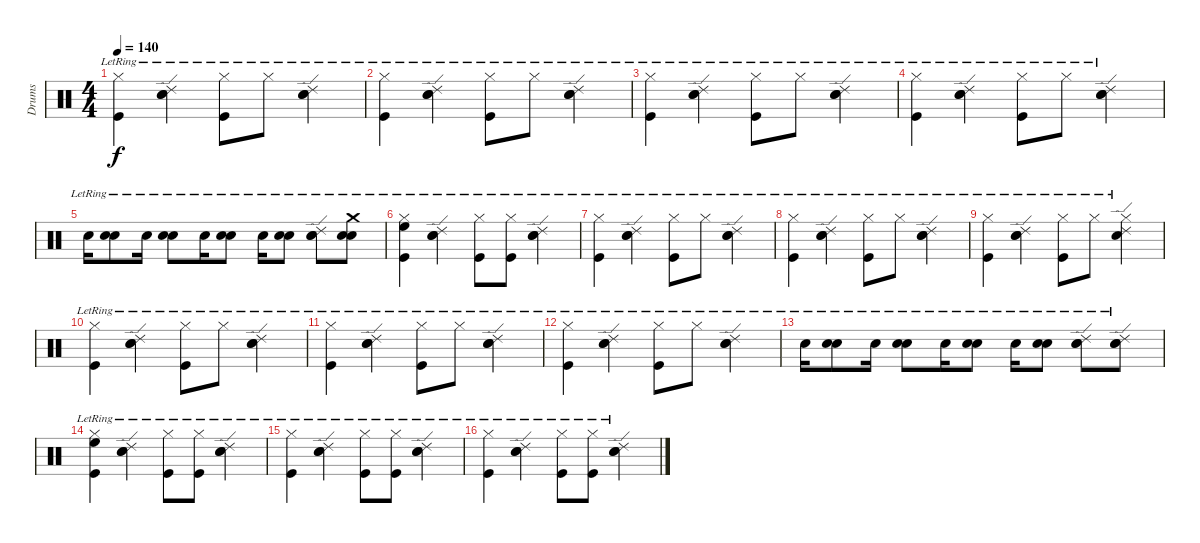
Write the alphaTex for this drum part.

\track ("Drums" "Drums") {instrument percussion}
\staff {score}
\articulation defaults
\ts (4 4)
\tempo 140
\clef neutral
\ks c
("Hi-Hat (closed)"{lr} "Kick (hit)"{lr}).4{dy f} ("Electric Snare (hit)"{lr} "Ride (edge) 2"{lr} "Snare (hit) 2"{lr}).4 ("Hi-Hat (closed)"{lr} "Kick (hit)"{lr}).8 "Hi-Hat (closed)"{lr}.8 ("Electric Snare (hit)"{lr} "Ride (edge) 2"{lr} "Snare (hit) 2"{lr}).4 |
("Hi-Hat (closed)"{lr} "Kick (hit)"{lr}).4 ("Electric Snare (hit)"{lr} "Ride (edge) 2"{lr} "Snare (hit) 2"{lr}).4 ("Hi-Hat (closed)"{lr} "Kick (hit)"{lr}).8 "Hi-Hat (closed)"{lr}.8 ("Electric Snare (hit)"{lr} "Ride (edge) 2"{lr} "Snare (hit) 2"{lr}).4 |
("Hi-Hat (closed)"{lr} "Kick (hit)"{lr}).4 ("Electric Snare (hit)"{lr} "Ride (edge) 2"{lr} "Snare (hit) 2"{lr}).4 ("Hi-Hat (closed)"{lr} "Kick (hit)"{lr}).8 "Hi-Hat (closed)"{lr}.8 ("Electric Snare (hit)"{lr} "Ride (edge) 2"{lr} "Snare (hit) 2"{lr}).4 |
("Hi-Hat (closed)"{lr} "Kick (hit)"{lr}).4 ("Electric Snare (hit)"{lr} "Ride (edge) 2"{lr} "Snare (hit) 2"{lr}).4 ("Hi-Hat (closed)"{lr} "Kick (hit)"{lr}).8 "Hi-Hat (closed)"{lr}.8 ("Electric Snare (hit)"{lr} "Ride (edge) 2"{lr} "Snare (hit) 2"{lr}).4 |
"Snare (hit) 2"{lr}.16 ("Snare (hit) 2"{lr} "Electric Snare (hit)"{lr}).8 "Snare (hit) 2"{lr}.16 ("Snare (hit) 2"{lr} "Electric Snare (hit)"{lr}).8 "Snare (hit) 2"{lr}.16 ("Snare (hit) 2"{lr} "Electric Snare (hit)"{lr}).8 "Snare (hit) 2"{lr}.16 ("Snare (hit) 2"{lr} "Electric Snare (hit)"{lr}).8 ("Snare (hit) 2"{lr} "Electric Snare (hit)"{lr} "Ride (edge) 2"{lr}).8 ("Snare (hit) 2"{lr} "Electric Snare (hit)"{lr} "Crash medium (hit)"{lr}).8 |
("Hi-Hat (closed)"{lr} "Kick (hit)"{lr} "High Floor Tom (hit)"{lr}).4 ("Electric Snare (hit)"{lr} "Ride (edge) 2"{lr} "Snare (hit) 2"{lr}).4 ("Hi-Hat (closed)"{lr} "Kick (hit)"{lr}).8 ("Hi-Hat (closed)"{lr} "Kick (hit)").8 ("Electric Snare (hit)"{lr} "Ride (edge) 2"{lr} "Snare (hit) 2"{lr}).4 |
("Hi-Hat (closed)"{lr} "Kick (hit)"{lr}).4 ("Electric Snare (hit)"{lr} "Ride (edge) 2"{lr} "Snare (hit) 2"{lr}).4 ("Hi-Hat (closed)"{lr} "Kick (hit)"{lr}).8 "Hi-Hat (closed)"{lr}.8 ("Electric Snare (hit)"{lr} "Ride (edge) 2"{lr} "Snare (hit) 2"{lr}).4 |
("Hi-Hat (closed)"{lr} "Kick (hit)"{lr}).4 ("Electric Snare (hit)"{lr} "Ride (edge) 2"{lr} "Snare (hit) 2"{lr}).4 ("Hi-Hat (closed)"{lr} "Kick (hit)"{lr}).8 "Hi-Hat (closed)"{lr}.8 ("Electric Snare (hit)"{lr} "Ride (edge) 2"{lr} "Snare (hit) 2"{lr}).4 |
("Hi-Hat (closed)"{lr} "Kick (hit)"{lr}).4 ("Electric Snare (hit)"{lr} "Ride (edge) 2"{lr} "Snare (hit) 2"{lr}).4 ("Hi-Hat (closed)"{lr} "Kick (hit)"{lr}).8 "Hi-Hat (closed)"{lr}.8 ("Hi-Hat (closed)"{lr} "Ride (edge) 2"{lr} "Snare (hit) 2"{lr}).4 |
("Hi-Hat (closed)"{lr} "Kick (hit)"{lr}).4 ("Electric Snare (hit)"{lr} "Ride (edge) 2"{lr} "Snare (hit) 2"{lr}).4 ("Hi-Hat (closed)"{lr} "Kick (hit)"{lr}).8 "Hi-Hat (closed)"{lr}.8 ("Electric Snare (hit)"{lr} "Ride (edge) 2"{lr} "Snare (hit) 2"{lr}).4 |
("Hi-Hat (closed)"{lr} "Kick (hit)"{lr}).4 ("Electric Snare (hit)"{lr} "Ride (edge) 2"{lr} "Snare (hit) 2"{lr}).4 ("Hi-Hat (closed)"{lr} "Kick (hit)"{lr}).8 "Hi-Hat (closed)"{lr}.8 ("Electric Snare (hit)"{lr} "Ride (edge) 2"{lr} "Snare (hit) 2"{lr}).4 |
("Hi-Hat (closed)"{lr} "Kick (hit)"{lr}).4 ("Electric Snare (hit)"{lr} "Ride (edge) 2"{lr} "Snare (hit) 2"{lr}).4 ("Hi-Hat (closed)"{lr} "Kick (hit)"{lr}).8 "Hi-Hat (closed)"{lr}.8 ("Electric Snare (hit)"{lr} "Ride (edge) 2"{lr} "Snare (hit) 2"{lr}).4 |
"Snare (hit) 2"{lr}.16 ("Snare (hit) 2"{lr} "Electric Snare (hit)"{lr}).8 "Snare (hit) 2"{lr}.16 ("Snare (hit) 2"{lr} "Electric Snare (hit)"{lr}).8 "Snare (hit) 2"{lr}.16 ("Snare (hit) 2"{lr} "Electric Snare (hit)"{lr}).8 "Snare (hit) 2"{lr}.16 ("Snare (hit) 2"{lr} "Electric Snare (hit)"{lr}).8 ("Snare (hit) 2"{lr} "Electric Snare (hit)"{lr} "Ride (edge) 2"{lr}).8 ("Snare (hit) 2"{lr} "Electric Snare (hit)"{lr} "Ride (edge) 2"{lr}).8 |
("Hi-Hat (closed)"{lr} "Kick (hit)"{lr} "High Floor Tom (hit)"{lr}).4 ("Electric Snare (hit)"{lr} "Ride (edge) 2"{lr} "Snare (hit) 2"{lr}).4 ("Hi-Hat (closed)"{lr} "Kick (hit)"{lr}).8 ("Hi-Hat (closed)"{lr} "Kick (hit)").8 ("Electric Snare (hit)"{lr} "Ride (edge) 2"{lr} "Snare (hit) 2"{lr}).4 |
("Hi-Hat (closed)"{lr} "Kick (hit)"{lr}).4 ("Electric Snare (hit)"{lr} "Ride (edge) 2"{lr} "Snare (hit) 2"{lr}).4 ("Hi-Hat (closed)"{lr} "Kick (hit)"{lr}).8 ("Hi-Hat (closed)"{lr} "Kick (hit)").8 ("Electric Snare (hit)"{lr} "Ride (edge) 2"{lr} "Snare (hit) 2"{lr}).4 |
("Hi-Hat (closed)"{lr} "Kick (hit)"{lr}).4 ("Electric Snare (hit)"{lr} "Ride (edge) 2"{lr} "Snare (hit) 2"{lr}).4 ("Hi-Hat (closed)"{lr} "Kick (hit)"{lr}).8 ("Hi-Hat (closed)"{lr} "Kick (hit)").8 ("Electric Snare (hit)"{lr} "Ride (edge) 2"{lr} "Snare (hit) 2"{lr}).4
